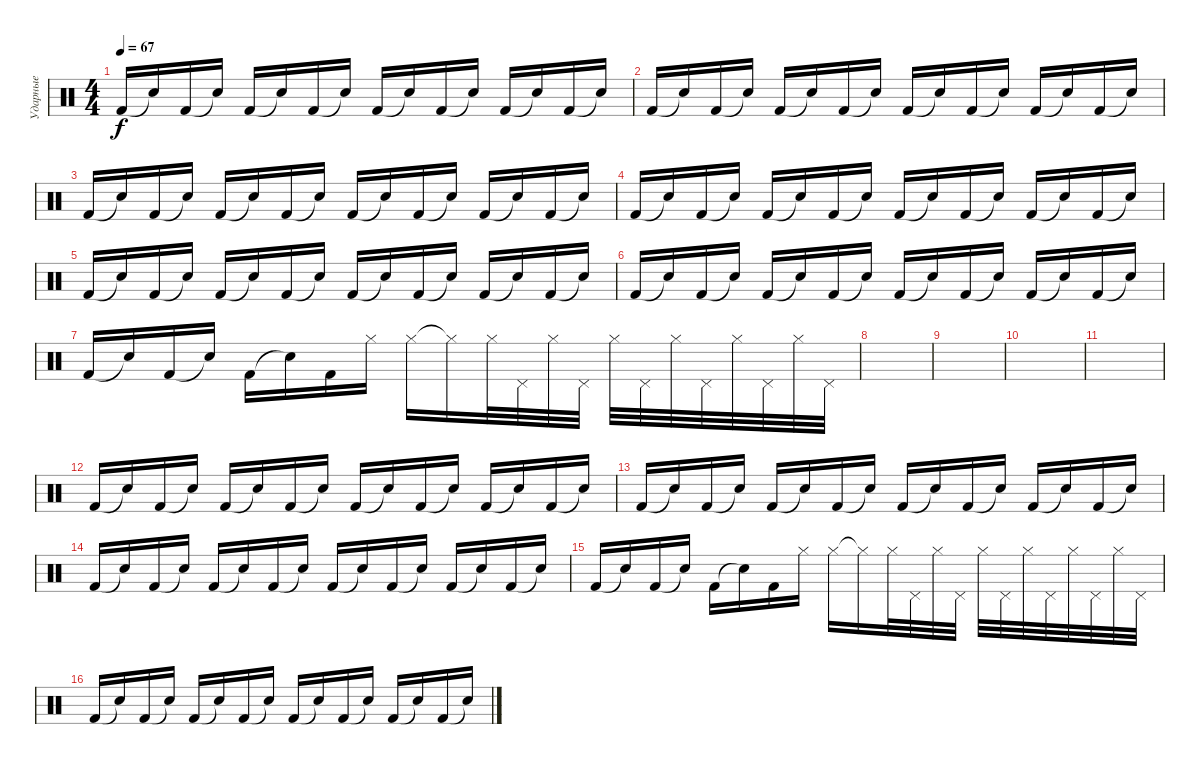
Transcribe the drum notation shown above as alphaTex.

\track ("Ударные" "Ударные") {instrument percussion}
\staff {score}
\articulation defaults
\ts (4 4)
\tempo 67
\clef neutral
\ks c "Kick (hit) 2".16{dy f} "Snare (hit)"{t}.16 "Kick (hit) 2".16 "Snare (hit)"{t}.16 "Kick (hit) 2".16 "Snare (hit)"{t}.16 "Kick (hit) 2".16 "Snare (hit)"{t}.16 "Kick (hit) 2".16 "Snare (hit)"{t}.16 "Kick (hit) 2".16 "Snare (hit)"{t}.16 "Kick (hit) 2".16 "Snare (hit)"{t}.16 "Kick (hit) 2".16 "Snare (hit)"{t}.16
|
"Kick (hit) 2".16 "Snare (hit)"{t}.16 "Kick (hit) 2".16 "Snare (hit)"{t}.16 "Kick (hit) 2".16 "Snare (hit)"{t}.16 "Kick (hit) 2".16 "Snare (hit)"{t}.16 "Kick (hit) 2".16 "Snare (hit)"{t}.16 "Kick (hit) 2".16 "Snare (hit)"{t}.16 "Kick (hit) 2".16 "Snare (hit)"{t}.16 "Kick (hit) 2".16 "Snare (hit)"{t}.16 |
"Kick (hit) 2".16 "Snare (hit)"{t}.16 "Kick (hit) 2".16 "Snare (hit)"{t}.16 "Kick (hit) 2".16 "Snare (hit)"{t}.16 "Kick (hit) 2".16 "Snare (hit)"{t}.16 "Kick (hit) 2".16 "Snare (hit)"{t}.16 "Kick (hit) 2".16 "Snare (hit)"{t}.16 "Kick (hit) 2".16 "Snare (hit)"{t}.16 "Kick (hit) 2".16 "Snare (hit)"{t}.16 |
"Kick (hit) 2".16 "Snare (hit)"{t}.16 "Kick (hit) 2".16 "Snare (hit)"{t}.16 "Kick (hit) 2".16 "Snare (hit)"{t}.16 "Kick (hit) 2".16 "Snare (hit)"{t}.16 "Kick (hit) 2".16 "Snare (hit)"{t}.16 "Kick (hit) 2".16 "Snare (hit)"{t}.16 "Kick (hit) 2".16 "Snare (hit)"{t}.16 "Kick (hit) 2".16 "Snare (hit)"{t}.16 |
"Kick (hit) 2".16 "Snare (hit)"{t}.16 "Kick (hit) 2".16 "Snare (hit)"{t}.16 "Kick (hit) 2".16 "Snare (hit)"{t}.16 "Kick (hit) 2".16 "Snare (hit)"{t}.16 "Kick (hit) 2".16 "Snare (hit)"{t}.16 "Kick (hit) 2".16 "Snare (hit)"{t}.16 "Kick (hit) 2".16 "Snare (hit)"{t}.16 "Kick (hit) 2".16 "Snare (hit)"{t}.16 |
"Kick (hit) 2".16 "Snare (hit)"{t}.16 "Kick (hit) 2".16 "Snare (hit)"{t}.16 "Kick (hit) 2".16 "Snare (hit)"{t}.16 "Kick (hit) 2".16 "Snare (hit)"{t}.16 "Kick (hit) 2".16 "Snare (hit)"{t}.16 "Kick (hit) 2".16 "Snare (hit)"{t}.16 "Kick (hit) 2".16 "Snare (hit)"{t}.16 "Kick (hit) 2".16 "Snare (hit)"{t}.16 |
"Kick (hit) 2".16 "Snare (hit)"{t}.16 "Kick (hit) 2".16 "Snare (hit)"{t}.16 "Kick (hit) 2".16 "Snare (hit)"{t}.16 "Kick (hit) 2".16 "Hi-Hat (closed)".16 "Hi-Hat (closed)".16 "Hi-Hat (closed)"{t}.16 "Hi-Hat (closed)".32 "Pedal Hi-Hat (hit)".32 "Hi-Hat (closed)".32 "Pedal Hi-Hat (hit)".32 "Hi-Hat (closed)".32 "Pedal Hi-Hat (hit)".32 "Hi-Hat (closed)".32 "Pedal Hi-Hat (hit)".32 "Hi-Hat (closed)".32 "Pedal Hi-Hat (hit)".32 "Hi-Hat (closed)".32 "Pedal Hi-Hat (hit)".32 |
|
|
|
|
"Kick (hit) 2".16 "Snare (hit)"{t}.16 "Kick (hit) 2".16 "Snare (hit)"{t}.16 "Kick (hit) 2".16 "Snare (hit)"{t}.16 "Kick (hit) 2".16 "Snare (hit)"{t}.16 "Kick (hit) 2".16 "Snare (hit)"{t}.16 "Kick (hit) 2".16 "Snare (hit)"{t}.16 "Kick (hit) 2".16 "Snare (hit)"{t}.16 "Kick (hit) 2".16 "Snare (hit)"{t}.16 |
"Kick (hit) 2".16 "Snare (hit)"{t}.16 "Kick (hit) 2".16 "Snare (hit)"{t}.16 "Kick (hit) 2".16 "Snare (hit)"{t}.16 "Kick (hit) 2".16 "Snare (hit)"{t}.16 "Kick (hit) 2".16 "Snare (hit)"{t}.16 "Kick (hit) 2".16 "Snare (hit)"{t}.16 "Kick (hit) 2".16 "Snare (hit)"{t}.16 "Kick (hit) 2".16 "Snare (hit)"{t}.16 |
"Kick (hit) 2".16 "Snare (hit)"{t}.16 "Kick (hit) 2".16 "Snare (hit)"{t}.16 "Kick (hit) 2".16 "Snare (hit)"{t}.16 "Kick (hit) 2".16 "Snare (hit)"{t}.16 "Kick (hit) 2".16 "Snare (hit)"{t}.16 "Kick (hit) 2".16 "Snare (hit)"{t}.16 "Kick (hit) 2".16 "Snare (hit)"{t}.16 "Kick (hit) 2".16 "Snare (hit)"{t}.16 |
"Kick (hit) 2".16 "Snare (hit)"{t}.16 "Kick (hit) 2".16 "Snare (hit)"{t}.16 "Kick (hit) 2".16 "Snare (hit)"{t}.16 "Kick (hit) 2".16 "Hi-Hat (closed)".16 "Hi-Hat (closed)".16 "Hi-Hat (closed)"{t}.16 "Hi-Hat (closed)".32 "Pedal Hi-Hat (hit)".32 "Hi-Hat (closed)".32 "Pedal Hi-Hat (hit)".32 "Hi-Hat (closed)".32 "Pedal Hi-Hat (hit)".32 "Hi-Hat (closed)".32 "Pedal Hi-Hat (hit)".32 "Hi-Hat (closed)".32 "Pedal Hi-Hat (hit)".32 "Hi-Hat (closed)".32 "Pedal Hi-Hat (hit)".32 |
"Kick (hit) 2".16 "Snare (hit)"{t}.16 "Kick (hit) 2".16 "Snare (hit)"{t}.16 "Kick (hit) 2".16 "Snare (hit)"{t}.16 "Kick (hit) 2".16 "Snare (hit)"{t}.16 "Kick (hit) 2".16 "Snare (hit)"{t}.16 "Kick (hit) 2".16 "Snare (hit)"{t}.16 "Kick (hit) 2".16 "Snare (hit)"{t}.16 "Kick (hit) 2".16 "Snare (hit)"{t}.16
